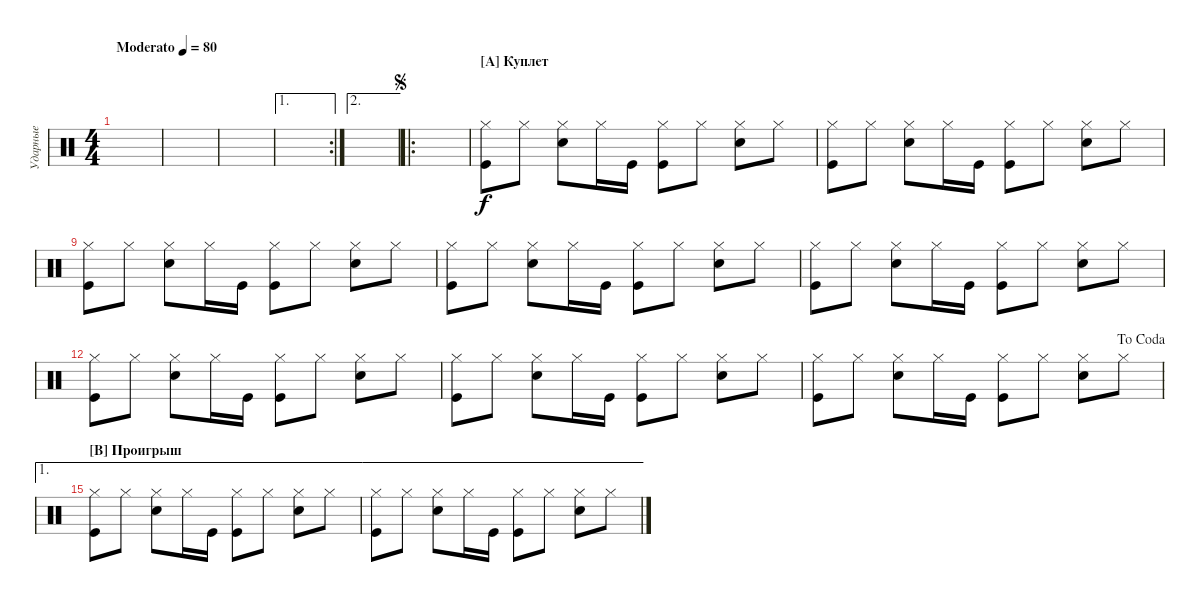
\defaultSystemsLayout 4
\bracketExtendMode groupsimilarinstruments
\multiTrackTrackNamePolicy hidden
\firstSystemTrackNameMode fullname
\otherSystemsTrackNameMode fullname
\otherSystemsTrackNameOrientation horizontal
\defaultBarNumberDisplay FirstOfSystem
\track ("Ударные" "Drums") {instrument percussion}
\staff {score}
\articulation defaults
\ts (4 4)
\tempo (80 "Moderato")
\clef neutral
\scale
0.455285
\ks aminor
|
\scale
0.272358 |
\scale
0.272358 |
\ae 1
\rc 2
\scale
0.333333 |
\ae 2
\scale
0.305936 |
\ro
\jump segno
\scale
0.360731 |
\section ("A" "Куплет")
\scale
0.333333 ("Hi-Hat (closed)" "Kick (hit)").8 "Hi-Hat (closed)".8 ("Hi-Hat (closed)" "Snare (hit) 2").8 "Hi-Hat (closed)".16 "Kick (hit)".16 ("Hi-Hat (closed)" "Kick (hit)").8 "Hi-Hat (closed)".8 ("Hi-Hat (closed)" "Snare (hit) 2").8 "Hi-Hat (closed)".8 |
\scale
0.333333 ("Hi-Hat (closed)" "Kick (hit)").8 "Hi-Hat (closed)".8 ("Hi-Hat (closed)" "Snare (hit) 2").8 "Hi-Hat (closed)".16 "Kick (hit)".16 ("Hi-Hat (closed)" "Kick (hit)").8 "Hi-Hat (closed)".8 ("Hi-Hat (closed)" "Snare (hit) 2").8 "Hi-Hat (closed)".8 |
\scale
0.333333 ("Hi-Hat (closed)" "Kick (hit)").8 "Hi-Hat (closed)".8 ("Hi-Hat (closed)" "Snare (hit) 2").8 "Hi-Hat (closed)".16 "Kick (hit)".16 ("Hi-Hat (closed)" "Kick (hit)").8 "Hi-Hat (closed)".8 ("Hi-Hat (closed)" "Snare (hit) 2").8 "Hi-Hat (closed)".8 |
\scale
0.333333 ("Hi-Hat (closed)" "Kick (hit)").8 "Hi-Hat (closed)".8 ("Hi-Hat (closed)" "Snare (hit) 2").8 "Hi-Hat (closed)".16 "Kick (hit)".16 ("Hi-Hat (closed)" "Kick (hit)").8 "Hi-Hat (closed)".8 ("Hi-Hat (closed)" "Snare (hit) 2").8 "Hi-Hat (closed)".8 |
\scale
0.333333 ("Hi-Hat (closed)" "Kick (hit)").8 "Hi-Hat (closed)".8 ("Hi-Hat (closed)" "Snare (hit) 2").8 "Hi-Hat (closed)".16 "Kick (hit)".16 ("Hi-Hat (closed)" "Kick (hit)").8 "Hi-Hat (closed)".8 ("Hi-Hat (closed)" "Snare (hit) 2").8 "Hi-Hat (closed)".8 |
\scale
0.333333 ("Hi-Hat (closed)" "Kick (hit)").8 "Hi-Hat (closed)".8 ("Hi-Hat (closed)" "Snare (hit) 2").8 "Hi-Hat (closed)".16 "Kick (hit)".16 ("Hi-Hat (closed)" "Kick (hit)").8 "Hi-Hat (closed)".8 ("Hi-Hat (closed)" "Snare (hit) 2").8 "Hi-Hat (closed)".8 |
\scale
0.333333 ("Hi-Hat (closed)" "Kick (hit)").8 "Hi-Hat (closed)".8 ("Hi-Hat (closed)" "Snare (hit) 2").8 "Hi-Hat (closed)".16 "Kick (hit)".16 ("Hi-Hat (closed)" "Kick (hit)").8 "Hi-Hat (closed)".8 ("Hi-Hat (closed)" "Snare (hit) 2").8 "Hi-Hat (closed)".8 |
\jump dacoda
\scale
0.333333 ("Hi-Hat (closed)" "Kick (hit)").8 "Hi-Hat (closed)".8 ("Hi-Hat (closed)" "Snare (hit) 2").8 "Hi-Hat (closed)".16 "Kick (hit)".16 ("Hi-Hat (closed)" "Kick (hit)").8 "Hi-Hat (closed)".8 ("Hi-Hat (closed)" "Snare (hit) 2").8 "Hi-Hat (closed)".8 |
\ae 1
\section ("B" "Проигрыш")
\scale
0.333333 ("Hi-Hat (closed)" "Kick (hit)").8 "Hi-Hat (closed)".8 ("Hi-Hat (closed)" "Snare (hit) 2").8 "Hi-Hat (closed)".16 "Kick (hit)".16 ("Hi-Hat (closed)" "Kick (hit)").8 "Hi-Hat (closed)".8 ("Hi-Hat (closed)" "Snare (hit) 2").8 "Hi-Hat (closed)".8 |
\ae 1
\scale
0.323671 ("Hi-Hat (closed)" "Kick (hit)").8 "Hi-Hat (closed)".8 ("Hi-Hat (closed)" "Snare (hit) 2").8 "Hi-Hat (closed)".16 "Kick (hit)".16 ("Hi-Hat (closed)" "Kick (hit)").8 "Hi-Hat (closed)".8 ("Hi-Hat (closed)" "Snare (hit) 2").8 "Hi-Hat (closed)".8
